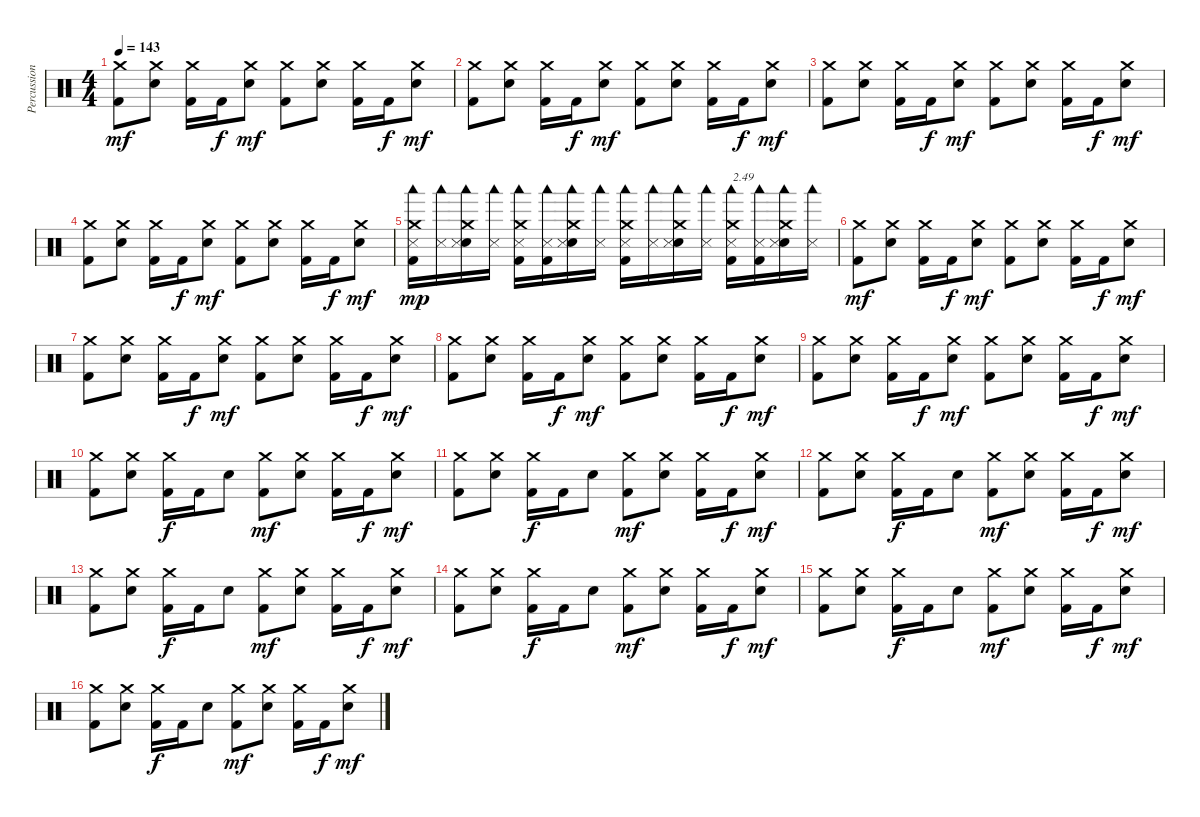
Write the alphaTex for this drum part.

\track ("Percussions" "Percussion") {instrument percussion}
\staff {score}
\articulation defaults
\ts (4 4)
\tempo 143
\clef neutral
\ks c
("Kick (hit) 2" "Crash medium (hit)").8{dy mf} ("Electric Snare (hit)" "Crash medium (hit)").8 ("Kick (hit) 2" "Crash medium (hit)").16 "Kick (hit) 2".16{dy f} ("Electric Snare (hit)" "Crash medium (hit)").8{dy mf} ("Kick (hit) 2" "Crash medium (hit)").8 ("Electric Snare (hit)" "Crash medium (hit)").8 ("Kick (hit) 2" "Crash medium (hit)").16 "Kick (hit) 2".16{dy f} ("Electric Snare (hit)" "Crash medium (hit)").8{dy mf} |
("Kick (hit) 2" "Crash medium (hit)").8 ("Electric Snare (hit)" "Crash medium (hit)").8 ("Kick (hit) 2" "Crash medium (hit)").16 "Kick (hit) 2".16{dy f} ("Electric Snare (hit)" "Crash medium (hit)").8{dy mf} ("Kick (hit) 2" "Crash medium (hit)").8 ("Electric Snare (hit)" "Crash medium (hit)").8 ("Kick (hit) 2" "Crash medium (hit)").16 "Kick (hit) 2".16{dy f} ("Electric Snare (hit)" "Crash medium (hit)").8{dy mf} |
("Kick (hit) 2" "Crash medium (hit)").8 ("Electric Snare (hit)" "Crash medium (hit)").8 ("Kick (hit) 2" "Crash medium (hit)").16 "Kick (hit) 2".16{dy f} ("Electric Snare (hit)" "Crash medium (hit)").8{dy mf} ("Kick (hit) 2" "Crash medium (hit)").8 ("Electric Snare (hit)" "Crash medium (hit)").8 ("Kick (hit) 2" "Crash medium (hit)").16 "Kick (hit) 2".16{dy f} ("Electric Snare (hit)" "Crash medium (hit)").8{dy mf} |
("Kick (hit) 2" "Crash medium (hit)").8 ("Electric Snare (hit)" "Crash medium (hit)").8 ("Kick (hit) 2" "Crash medium (hit)").16 "Kick (hit) 2".16{dy f} ("Electric Snare (hit)" "Crash medium (hit)").8{dy mf} ("Kick (hit) 2" "Crash medium (hit)").8 ("Electric Snare (hit)" "Crash medium (hit)").8 ("Kick (hit) 2" "Crash medium (hit)").16 "Kick (hit) 2".16{dy f} ("Electric Snare (hit)" "Crash medium (hit)").8{dy mf} |
("Kick (hit) 2" "Woodblock low (hit)" "Crash medium (hit)" "Snare (side stick) 3").16{dy mp} ("Woodblock low (hit)" "Snare (side stick) 3").16 ("Electric Snare (hit)" "Woodblock low (hit)" "Crash medium (hit)" "Snare (side stick) 3").16 ("Woodblock low (hit)" "Snare (side stick) 3").16 ("Kick (hit) 2" "Woodblock low (hit)" "Crash medium (hit)" "Snare (side stick) 3").16 ("Kick (hit) 2" "Woodblock low (hit)" "Snare (side stick) 3").16 ("Electric Snare (hit)" "Woodblock low (hit)" "Crash medium (hit)" "Snare (side stick) 3").16 ("Woodblock low (hit)" "Snare (side stick) 3").16 ("Kick (hit) 2" "Woodblock low (hit)" "Crash medium (hit)" "Snare (side stick) 3").16 ("Woodblock low (hit)" "Snare (side stick) 3").16 ("Electric Snare (hit)" "Woodblock low (hit)" "Crash medium (hit)" "Snare (side stick) 3").16 ("Woodblock low (hit)" "Snare (side stick) 3").16 ("Kick (hit) 2" "Woodblock low (hit)" "Crash medium (hit)" "Snare (side stick) 3").16{txt "2.49"} ("Kick (hit) 2" "Woodblock low (hit)" "Snare (side stick) 3").16 ("Electric Snare (hit)" "Woodblock low (hit)" "Crash medium (hit)" "Snare (side stick) 3").16 ("Woodblock low (hit)" "Snare (side stick) 3").16 |
("Kick (hit) 2" "Crash medium (hit)").8{dy mf} ("Electric Snare (hit)" "Crash medium (hit)").8 ("Kick (hit) 2" "Crash medium (hit)").16 "Kick (hit) 2".16{dy f} ("Electric Snare (hit)" "Crash medium (hit)").8{dy mf} ("Kick (hit) 2" "Crash medium (hit)").8 ("Electric Snare (hit)" "Crash medium (hit)").8 ("Kick (hit) 2" "Crash medium (hit)").16 "Kick (hit) 2".16{dy f} ("Electric Snare (hit)" "Crash medium (hit)").8{dy mf} |
("Kick (hit) 2" "Crash medium (hit)").8 ("Electric Snare (hit)" "Crash medium (hit)").8 ("Kick (hit) 2" "Crash medium (hit)").16 "Kick (hit) 2".16{dy f} ("Electric Snare (hit)" "Crash medium (hit)").8{dy mf} ("Kick (hit) 2" "Crash medium (hit)").8 ("Electric Snare (hit)" "Crash medium (hit)").8 ("Kick (hit) 2" "Crash medium (hit)").16 "Kick (hit) 2".16{dy f} ("Electric Snare (hit)" "Crash medium (hit)").8{dy mf} |
("Kick (hit) 2" "Crash medium (hit)").8 ("Electric Snare (hit)" "Crash medium (hit)").8 ("Kick (hit) 2" "Crash medium (hit)").16 "Kick (hit) 2".16{dy f} ("Electric Snare (hit)" "Crash medium (hit)").8{dy mf} ("Kick (hit) 2" "Crash medium (hit)").8 ("Electric Snare (hit)" "Crash medium (hit)").8 ("Kick (hit) 2" "Crash medium (hit)").16 "Kick (hit) 2".16{dy f} ("Electric Snare (hit)" "Crash medium (hit)").8{dy mf} |
("Kick (hit) 2" "Crash medium (hit)").8 ("Electric Snare (hit)" "Crash medium (hit)").8 ("Kick (hit) 2" "Crash medium (hit)").16 "Kick (hit) 2".16{dy f} ("Electric Snare (hit)" "Crash medium (hit)").8{dy mf} ("Kick (hit) 2" "Crash medium (hit)").8 ("Electric Snare (hit)" "Crash medium (hit)").8 ("Kick (hit) 2" "Crash medium (hit)").16 "Kick (hit) 2".16{dy f} ("Electric Snare (hit)" "Crash medium (hit)").8{dy mf} |
("Kick (hit) 2" "Crash medium (hit)").8 ("Electric Snare (hit)" "Crash medium (hit)").8 ("Kick (hit) 2" "Crash medium (hit)").16{dy f} "Kick (hit) 2".16 "Electric Snare (hit)".8 ("Kick (hit) 2" "Crash medium (hit)").8{dy mf} ("Electric Snare (hit)" "Crash medium (hit)").8 ("Kick (hit) 2" "Crash medium (hit)").16 "Kick (hit) 2".16{dy f} ("Electric Snare (hit)" "Crash medium (hit)").8{dy mf} |
("Kick (hit) 2" "Crash medium (hit)").8 ("Electric Snare (hit)" "Crash medium (hit)").8 ("Kick (hit) 2" "Crash medium (hit)").16{dy f} "Kick (hit) 2".16 "Electric Snare (hit)".8 ("Kick (hit) 2" "Crash medium (hit)").8{dy mf} ("Electric Snare (hit)" "Crash medium (hit)").8 ("Kick (hit) 2" "Crash medium (hit)").16 "Kick (hit) 2".16{dy f} ("Electric Snare (hit)" "Crash medium (hit)").8{dy mf} |
("Kick (hit) 2" "Crash medium (hit)").8 ("Electric Snare (hit)" "Crash medium (hit)").8 ("Kick (hit) 2" "Crash medium (hit)").16{dy f} "Kick (hit) 2".16 "Electric Snare (hit)".8 ("Kick (hit) 2" "Crash medium (hit)").8{dy mf} ("Electric Snare (hit)" "Crash medium (hit)").8 ("Kick (hit) 2" "Crash medium (hit)").16 "Kick (hit) 2".16{dy f} ("Electric Snare (hit)" "Crash medium (hit)").8{dy mf} |
("Kick (hit) 2" "Crash medium (hit)").8 ("Electric Snare (hit)" "Crash medium (hit)").8 ("Kick (hit) 2" "Crash medium (hit)").16{dy f} "Kick (hit) 2".16 "Electric Snare (hit)".8 ("Kick (hit) 2" "Crash medium (hit)").8{dy mf} ("Electric Snare (hit)" "Crash medium (hit)").8 ("Kick (hit) 2" "Crash medium (hit)").16 "Kick (hit) 2".16{dy f} ("Electric Snare (hit)" "Crash medium (hit)").8{dy mf} |
("Kick (hit) 2" "Crash medium (hit)").8 ("Electric Snare (hit)" "Crash medium (hit)").8 ("Kick (hit) 2" "Crash medium (hit)").16{dy f} "Kick (hit) 2".16 "Electric Snare (hit)".8 ("Kick (hit) 2" "Crash medium (hit)").8{dy mf} ("Electric Snare (hit)" "Crash medium (hit)").8 ("Kick (hit) 2" "Crash medium (hit)").16 "Kick (hit) 2".16{dy f} ("Electric Snare (hit)" "Crash medium (hit)").8{dy mf} |
("Kick (hit) 2" "Crash medium (hit)").8 ("Electric Snare (hit)" "Crash medium (hit)").8 ("Kick (hit) 2" "Crash medium (hit)").16{dy f} "Kick (hit) 2".16 "Electric Snare (hit)".8 ("Kick (hit) 2" "Crash medium (hit)").8{dy mf} ("Electric Snare (hit)" "Crash medium (hit)").8 ("Kick (hit) 2" "Crash medium (hit)").16 "Kick (hit) 2".16{dy f} ("Electric Snare (hit)" "Crash medium (hit)").8{dy mf} |
("Kick (hit) 2" "Crash medium (hit)").8 ("Electric Snare (hit)" "Crash medium (hit)").8 ("Kick (hit) 2" "Crash medium (hit)").16{dy f} "Kick (hit) 2".16 "Electric Snare (hit)".8 ("Kick (hit) 2" "Crash medium (hit)").8{dy mf} ("Electric Snare (hit)" "Crash medium (hit)").8 ("Kick (hit) 2" "Crash medium (hit)").16 "Kick (hit) 2".16{dy f} ("Electric Snare (hit)" "Crash medium (hit)").8{dy mf}
